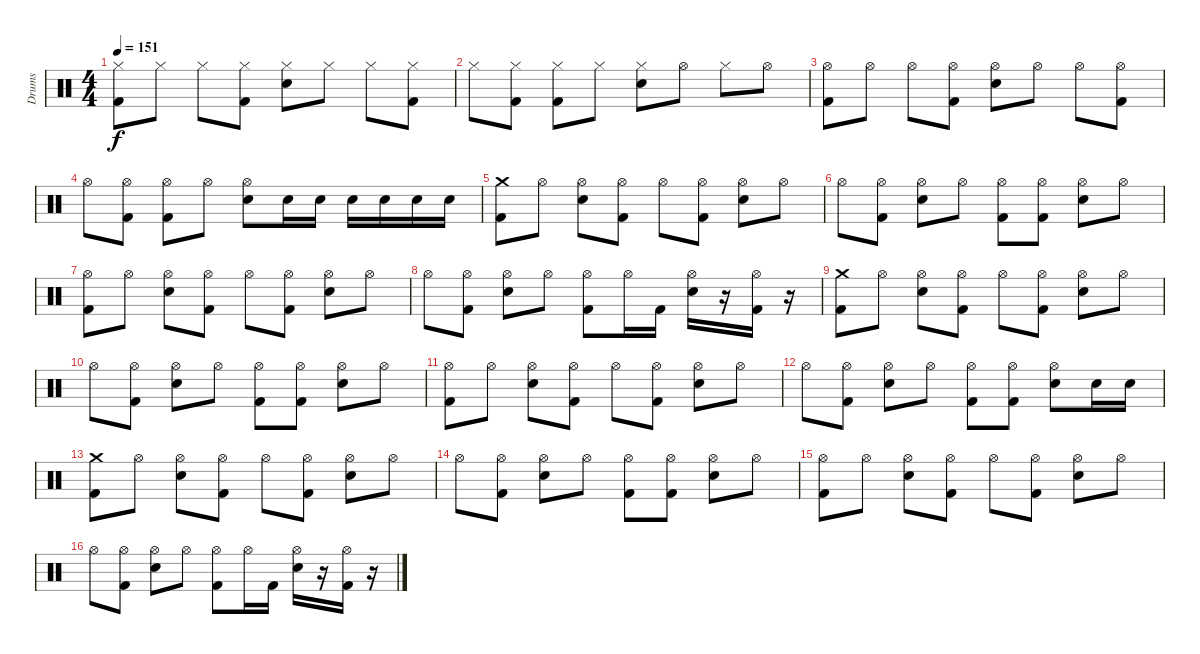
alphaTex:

\track ("Drums" "Drums") {instrument percussion}
\staff {score}
\articulation defaults
\ts (4 4)
\tempo 151
\clef neutral
\ks c
("Hi-Hat (closed)" "Kick (hit) 2").8{dy f} "Hi-Hat (closed)".8 "Hi-Hat (closed)".8 ("Hi-Hat (closed)" "Kick (hit) 2").8 ("Hi-Hat (closed)" "Snare (hit) 2").8 "Hi-Hat (closed)".8 "Hi-Hat (closed)".8 ("Hi-Hat (closed)" "Kick (hit) 2").8 |
"Hi-Hat (closed)".8 ("Hi-Hat (closed)" "Kick (hit) 2").8 ("Hi-Hat (closed)" "Kick (hit) 2").8 "Hi-Hat (closed)".8 ("Hi-Hat (closed)" "Snare (hit) 2").8 "Hi-Hat (open)".8 "Hi-Hat (closed)".8 "Hi-Hat (open)".8 |
("Hi-Hat (open)" "Kick (hit) 2").8 "Hi-Hat (open)".8 "Hi-Hat (open)".8 ("Hi-Hat (open)" "Kick (hit) 2").8 ("Hi-Hat (open)" "Snare (hit) 2").8 "Hi-Hat (open)".8 "Hi-Hat (open)".8 ("Hi-Hat (open)" "Kick (hit) 2").8 |
"Hi-Hat (open)".8 ("Hi-Hat (open)" "Kick (hit) 2").8 ("Hi-Hat (open)" "Kick (hit) 2").8 "Hi-Hat (open)".8 ("Hi-Hat (open)" "Snare (hit) 2").8 "Snare (hit) 2".16 "Snare (hit) 2".16 "Snare (hit) 2".16 "Snare (hit) 2".16 "Snare (hit) 2".16 "Snare (hit) 2".16 |
("Crash medium (hit)" "Kick (hit) 2").8 "Hi-Hat (open)".8 ("Hi-Hat (open)" "Snare (hit) 2").8 ("Hi-Hat (open)" "Kick (hit) 2").8 "Hi-Hat (open)".8 ("Hi-Hat (open)" "Kick (hit) 2").8 ("Hi-Hat (open)" "Snare (hit) 2").8 "Hi-Hat (open)".8 |
"Hi-Hat (open)".8 ("Hi-Hat (open)" "Kick (hit) 2").8 ("Hi-Hat (open)" "Snare (hit) 2").8 "Hi-Hat (open)".8 ("Hi-Hat (open)" "Kick (hit) 2").8 ("Hi-Hat (open)" "Kick (hit) 2").8 ("Hi-Hat (open)" "Snare (hit) 2").8 "Hi-Hat (open)".8 |
("Hi-Hat (open)" "Kick (hit) 2").8 "Hi-Hat (open)".8 ("Hi-Hat (open)" "Snare (hit) 2").8 ("Hi-Hat (open)" "Kick (hit) 2").8 "Hi-Hat (open)".8 ("Hi-Hat (open)" "Kick (hit) 2").8 ("Hi-Hat (open)" "Snare (hit) 2").8 "Hi-Hat (open)".8 |
"Hi-Hat (open)".8 ("Hi-Hat (open)" "Kick (hit) 2").8 ("Hi-Hat (open)" "Snare (hit) 2").8 "Hi-Hat (open)".8 ("Hi-Hat (open)" "Kick (hit) 2").8 "Hi-Hat (open)".16 "Kick (hit) 2".16 ("Hi-Hat (open)" "Snare (hit) 2").16 r.16 ("Hi-Hat (open)" "Kick (hit) 2").16 r.16 |
("Crash medium (hit)" "Kick (hit) 2").8 "Hi-Hat (open)".8 ("Hi-Hat (open)" "Snare (hit) 2").8 ("Hi-Hat (open)" "Kick (hit) 2").8 "Hi-Hat (open)".8 ("Hi-Hat (open)" "Kick (hit) 2").8 ("Hi-Hat (open)" "Snare (hit) 2").8 "Hi-Hat (open)".8 |
"Hi-Hat (open)".8 ("Hi-Hat (open)" "Kick (hit) 2").8 ("Hi-Hat (open)" "Snare (hit) 2").8 "Hi-Hat (open)".8 ("Hi-Hat (open)" "Kick (hit) 2").8 ("Hi-Hat (open)" "Kick (hit) 2").8 ("Hi-Hat (open)" "Snare (hit) 2").8 "Hi-Hat (open)".8 |
("Hi-Hat (open)" "Kick (hit) 2").8 "Hi-Hat (open)".8 ("Hi-Hat (open)" "Snare (hit) 2").8 ("Hi-Hat (open)" "Kick (hit) 2").8 "Hi-Hat (open)".8 ("Hi-Hat (open)" "Kick (hit) 2").8 ("Hi-Hat (open)" "Snare (hit) 2").8 "Hi-Hat (open)".8 |
"Hi-Hat (open)".8 ("Hi-Hat (open)" "Kick (hit) 2").8 ("Hi-Hat (open)" "Snare (hit) 2").8 "Hi-Hat (open)".8 ("Hi-Hat (open)" "Kick (hit) 2").8 ("Hi-Hat (open)" "Kick (hit) 2").8 ("Hi-Hat (open)" "Snare (hit) 2").8 "Snare (hit) 2".16 "Snare (hit) 2".16 |
("Crash medium (hit)" "Kick (hit) 2").8 "Hi-Hat (open)".8 ("Hi-Hat (open)" "Snare (hit) 2").8 ("Hi-Hat (open)" "Kick (hit) 2").8 "Hi-Hat (open)".8 ("Hi-Hat (open)" "Kick (hit) 2").8 ("Hi-Hat (open)" "Snare (hit) 2").8 "Hi-Hat (open)".8 |
"Hi-Hat (open)".8 ("Hi-Hat (open)" "Kick (hit) 2").8 ("Hi-Hat (open)" "Snare (hit) 2").8 "Hi-Hat (open)".8 ("Hi-Hat (open)" "Kick (hit) 2").8 ("Hi-Hat (open)" "Kick (hit) 2").8 ("Hi-Hat (open)" "Snare (hit) 2").8 "Hi-Hat (open)".8 |
("Hi-Hat (open)" "Kick (hit) 2").8 "Hi-Hat (open)".8 ("Hi-Hat (open)" "Snare (hit) 2").8 ("Hi-Hat (open)" "Kick (hit) 2").8 "Hi-Hat (open)".8 ("Hi-Hat (open)" "Kick (hit) 2").8 ("Hi-Hat (open)" "Snare (hit) 2").8 "Hi-Hat (open)".8 |
"Hi-Hat (open)".8 ("Hi-Hat (open)" "Kick (hit) 2").8 ("Hi-Hat (open)" "Snare (hit) 2").8 "Hi-Hat (open)".8 ("Hi-Hat (open)" "Kick (hit) 2").8 "Hi-Hat (open)".16 "Kick (hit) 2".16 ("Hi-Hat (open)" "Snare (hit) 2").16 r.16 ("Hi-Hat (open)" "Kick (hit) 2").16 r.16
